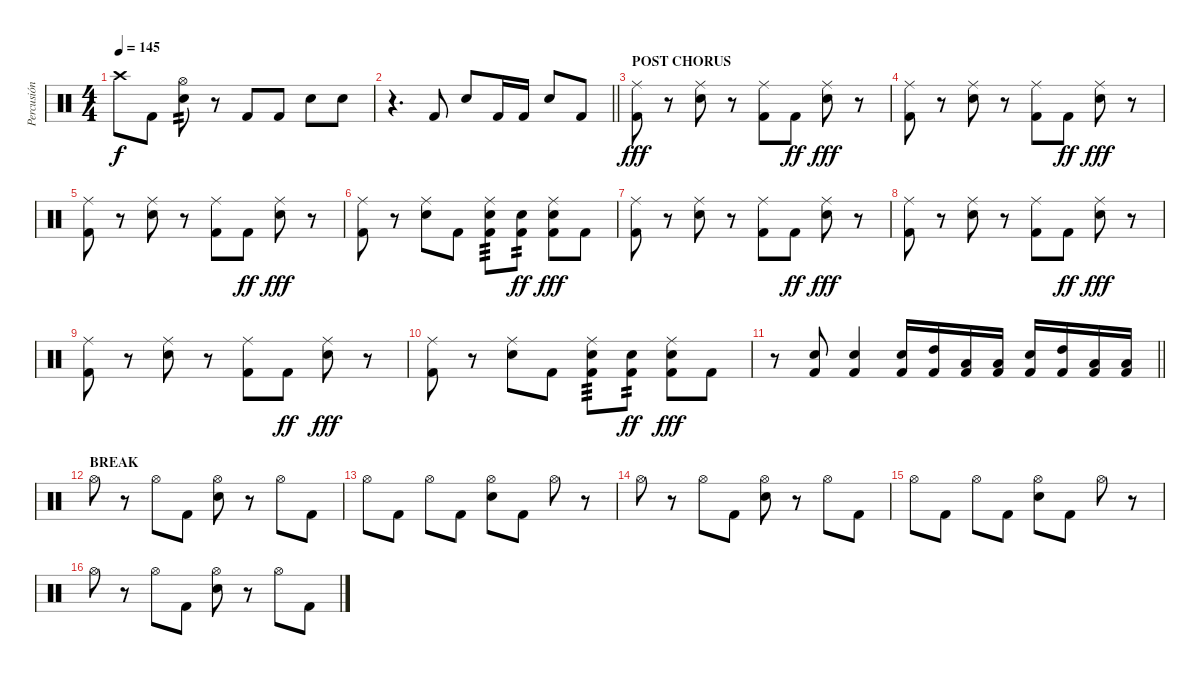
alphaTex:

\track ("Percusión" "Percusión") {instrument percussion}
\staff {score}
\articulation defaults
\ts (4 4)
\tempo 145
\clef neutral
\ks c "Crash high (hit)".8{dy f} "Kick (hit) 2".8
("Hi-Hat (open)" "Snare (hit) 2").8{tp 2} r.8 "Kick (hit) 2".8 "Kick (hit) 2".8 "Snare (hit) 2".8 "Snare (hit) 2".8 |
\barLineRight lightlight
r.4{d} "Kick (hit) 2".8 "Snare (hit) 2".8 "Kick (hit) 2".16 "Kick (hit) 2".16 "Snare (hit) 2".8 "Kick (hit) 2".8 |
\section ("" "POST CHORUS")
("Ride (middle)" "Kick (hit) 2").8{dy fff} r.8 ("Ride (middle)" "Snare (hit) 2").8 r.8 ("Ride (middle)" "Kick (hit) 2").8 "Kick (hit) 2".8{dy ff} ("Ride (middle)" "Snare (hit) 2").8{dy fff} r.8 |
("Ride (middle)" "Kick (hit) 2").8 r.8 ("Ride (middle)" "Snare (hit) 2").8 r.8 ("Ride (middle)" "Kick (hit) 2").8 "Kick (hit) 2".8{dy ff} ("Ride (middle)" "Snare (hit) 2").8{dy fff} r.8 |
("Ride (middle)" "Kick (hit) 2").8 r.8 ("Ride (middle)" "Snare (hit) 2").8 r.8 ("Ride (middle)" "Kick (hit) 2").8 "Kick (hit) 2".8{dy ff} ("Ride (middle)" "Snare (hit) 2").8{dy fff} r.8 |
("Ride (middle)" "Kick (hit) 2").8 r.8 ("Ride (middle)" "Snare (hit) 2").8 "Kick (hit) 2".8 ("Ride (middle)" "Snare (hit) 2" "Kick (hit) 2").8{tp 3} ("Snare (hit) 2" "Kick (hit) 2").8{tp 2 dy ff} ("Ride (middle)" "Snare (hit) 2" "Kick (hit) 2").8{dy fff} "Kick (hit) 2".8 |
("Ride (middle)" "Kick (hit) 2").8 r.8 ("Ride (middle)" "Snare (hit) 2").8 r.8 ("Ride (middle)" "Kick (hit) 2").8 "Kick (hit) 2".8{dy ff} ("Ride (middle)" "Snare (hit) 2").8{dy fff} r.8 |
("Ride (middle)" "Kick (hit) 2").8 r.8 ("Ride (middle)" "Snare (hit) 2").8 r.8 ("Ride (middle)" "Kick (hit) 2").8 "Kick (hit) 2".8{dy ff} ("Ride (middle)" "Snare (hit) 2").8{dy fff} r.8 |
("Ride (middle)" "Kick (hit) 2").8 r.8 ("Ride (middle)" "Snare (hit) 2").8 r.8 ("Ride (middle)" "Kick (hit) 2").8 "Kick (hit) 2".8{dy ff} ("Ride (middle)" "Snare (hit) 2").8{dy fff} r.8 |
("Ride (middle)" "Kick (hit) 2").8 r.8 ("Ride (middle)" "Snare (hit) 2").8 "Kick (hit) 2".8 ("Ride (middle)" "Snare (hit) 2" "Kick (hit) 2").8{tp 3} ("Snare (hit) 2" "Kick (hit) 2").8{tp 2 dy ff} ("Ride (middle)" "Snare (hit) 2" "Kick (hit) 2").8{dy fff} "Kick (hit) 2".8 |
\barLineRight lightlight
r.8 ("Snare (hit) 2" "Kick (hit) 2").8 ("Snare (hit) 2" "Kick (hit) 2").4 ("Snare (hit) 2" "Kick (hit) 2").16 ("High Tom (hit)" "Kick (hit) 2").16 ("Low Tom (hit)" "Kick (hit) 2").16 ("Low Floor Tom (hit)" "Kick (hit) 2").16 ("Snare (hit) 2" "Kick (hit) 2").16 ("High Tom (hit)" "Kick (hit) 2").16 ("Low Tom (hit)" "Kick (hit) 2").16 ("Low Floor Tom (hit)" "Kick (hit) 2").16 |
\section ("" "BREAK")
"Hi-Hat (open)".8 r.8 "Hi-Hat (open)".8 "Kick (hit) 2".8 ("Snare (hit) 2" "Hi-Hat (open)").8 r.8 "Hi-Hat (open)".8 "Kick (hit) 2".8 |
"Hi-Hat (open)".8 "Kick (hit) 2".8 "Hi-Hat (open)".8 "Kick (hit) 2".8 ("Snare (hit) 2" "Hi-Hat (open)").8 "Kick (hit) 2".8 "Hi-Hat (open)".8 r.8 |
"Hi-Hat (open)".8 r.8 "Hi-Hat (open)".8 "Kick (hit) 2".8 ("Snare (hit) 2" "Hi-Hat (open)").8 r.8 "Hi-Hat (open)".8 "Kick (hit) 2".8 |
"Hi-Hat (open)".8 "Kick (hit) 2".8 "Hi-Hat (open)".8 "Kick (hit) 2".8 ("Snare (hit) 2" "Hi-Hat (open)").8 "Kick (hit) 2".8 "Hi-Hat (open)".8 r.8 |
"Hi-Hat (open)".8 r.8 "Hi-Hat (open)".8 "Kick (hit) 2".8 ("Snare (hit) 2" "Hi-Hat (open)").8 r.8 "Hi-Hat (open)".8 "Kick (hit) 2".8
